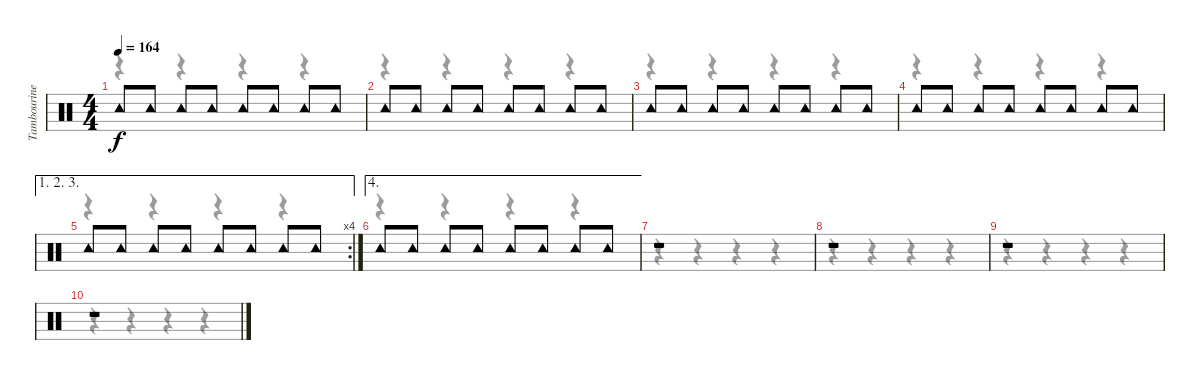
\track ("Tambourine" "Tambourine") {instrument percussion}
\staff {score}
\articulation defaults
\voice
\ts (4 4)
\tempo 164
\clef neutral
\ks c "Tambourine (hit)".8{dy f} "Tambourine (hit)".8 "Tambourine (hit)".8 "Tambourine (hit)".8 "Tambourine (hit)".8 "Tambourine (hit)".8 "Tambourine (hit)".8 "Tambourine (hit)".8
|
"Tambourine (hit)".8 "Tambourine (hit)".8 "Tambourine (hit)".8 "Tambourine (hit)".8 "Tambourine (hit)".8 "Tambourine (hit)".8 "Tambourine (hit)".8 "Tambourine (hit)".8 |
"Tambourine (hit)".8 "Tambourine (hit)".8 "Tambourine (hit)".8 "Tambourine (hit)".8 "Tambourine (hit)".8 "Tambourine (hit)".8 "Tambourine (hit)".8 "Tambourine (hit)".8 |
"Tambourine (hit)".8 "Tambourine (hit)".8 "Tambourine (hit)".8 "Tambourine (hit)".8 "Tambourine (hit)".8 "Tambourine (hit)".8 "Tambourine (hit)".8 "Tambourine (hit)".8 |
\ae (1 2 3)
\rc 4 "Tambourine (hit)".8 "Tambourine (hit)".8 "Tambourine (hit)".8 "Tambourine (hit)".8 "Tambourine (hit)".8 "Tambourine (hit)".8 "Tambourine (hit)".8 "Tambourine (hit)".8
|
\ae 4 "Tambourine (hit)".8 "Tambourine (hit)".8 "Tambourine (hit)".8 "Tambourine (hit)".8 "Tambourine (hit)".8 "Tambourine (hit)".8 "Tambourine (hit)".8 "Tambourine (hit)".8
|
r.1 |
r.1 |
r.1 |
r.1
\voice
\clef neutral
\ottava regular
\simile none
\ks c
r.4{dy f} r.4 r.4 r.4 |
r.4 r.4 r.4 r.4 |
r.4 r.4 r.4 r.4 |
r.4 r.4 r.4 r.4 |
r.4 r.4 r.4 r.4 |
r.4 r.4 r.4 r.4 |
r.4 r.4 r.4 r.4 |
r.4 r.4 r.4 r.4 |
r.4 r.4 r.4 r.4 |
r.4 r.4 r.4 r.4
